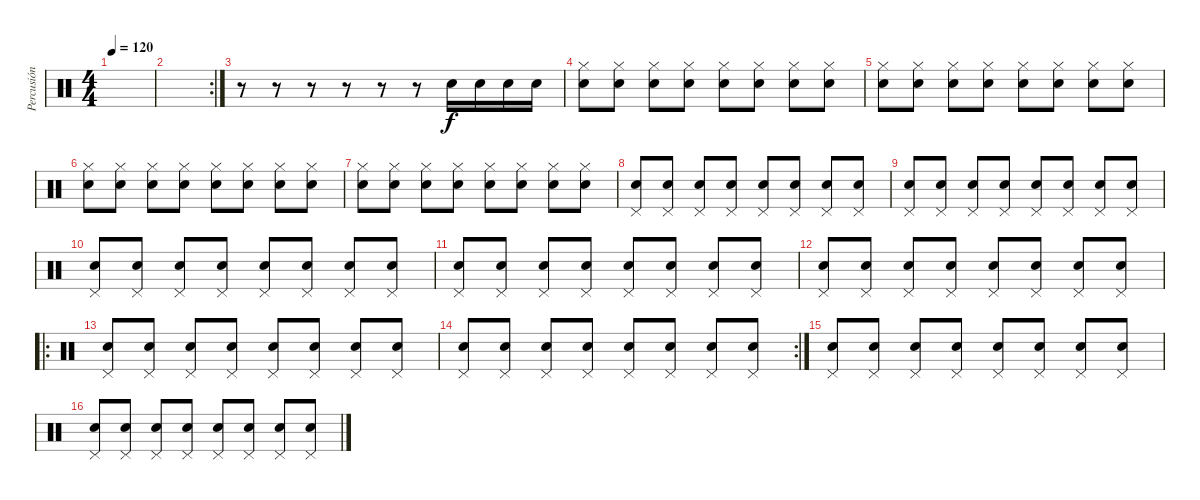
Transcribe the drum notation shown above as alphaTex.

\track ("Percusión" "Percusión") {instrument percussion}
\staff {score}
\articulation defaults
\ts (4 4)
\tempo 120
\clef neutral
\ks c
|
\rc 2
|
r.8 r.8 r.8 r.8 r.8 r.8 "Snare (hit) 2".16 "Snare (hit) 2".16 "Snare (hit) 2".16 "Snare (hit) 2".16 |
("Snare (hit) 2" "Hi-Hat (closed)").8 ("Electric Snare (hit)" "Hi-Hat (closed)").8 ("Snare (hit) 2" "Hi-Hat (closed)").8 ("Electric Snare (hit)" "Hi-Hat (closed)").8 ("Snare (hit) 2" "Hi-Hat (closed)").8 ("Electric Snare (hit)" "Hi-Hat (closed)").8 ("Snare (hit) 2" "Hi-Hat (closed)").8 ("Electric Snare (hit)" "Hi-Hat (closed)").8 |
("Snare (hit) 2" "Hi-Hat (closed)").8 ("Electric Snare (hit)" "Hi-Hat (closed)").8 ("Snare (hit) 2" "Hi-Hat (closed)").8 ("Electric Snare (hit)" "Hi-Hat (closed)").8 ("Snare (hit) 2" "Hi-Hat (closed)").8 ("Electric Snare (hit)" "Hi-Hat (closed)").8 ("Snare (hit) 2" "Hi-Hat (closed)").8 ("Electric Snare (hit)" "Hi-Hat (closed)").8 |
("Snare (hit) 2" "Hi-Hat (closed)").8 ("Electric Snare (hit)" "Hi-Hat (closed)").8 ("Snare (hit) 2" "Hi-Hat (closed)").8 ("Electric Snare (hit)" "Hi-Hat (closed)").8 ("Snare (hit) 2" "Hi-Hat (closed)").8 ("Electric Snare (hit)" "Hi-Hat (closed)").8 ("Snare (hit) 2" "Hi-Hat (closed)").8 ("Electric Snare (hit)" "Hi-Hat (closed)").8 |
("Snare (hit) 2" "Hi-Hat (closed)").8 ("Electric Snare (hit)" "Hi-Hat (closed)").8 ("Snare (hit) 2" "Hi-Hat (closed)").8 ("Electric Snare (hit)" "Hi-Hat (closed)").8 ("Snare (hit) 2" "Hi-Hat (closed)").8 ("Electric Snare (hit)" "Hi-Hat (closed)").8 ("Snare (hit) 2" "Hi-Hat (closed)").8 ("Electric Snare (hit)" "Hi-Hat (closed)").8 |
("Snare (hit) 2" "Pedal Hi-Hat (hit)").8 ("Electric Snare (hit)" "Pedal Hi-Hat (hit)").8 ("Snare (hit) 2" "Pedal Hi-Hat (hit)").8 ("Electric Snare (hit)" "Pedal Hi-Hat (hit)").8 ("Snare (hit) 2" "Pedal Hi-Hat (hit)").8 ("Electric Snare (hit)" "Pedal Hi-Hat (hit)").8 ("Snare (hit) 2" "Pedal Hi-Hat (hit)").8 ("Electric Snare (hit)" "Pedal Hi-Hat (hit)").8 |
("Snare (hit) 2" "Pedal Hi-Hat (hit)").8 ("Electric Snare (hit)" "Pedal Hi-Hat (hit)").8 ("Snare (hit) 2" "Pedal Hi-Hat (hit)").8 ("Electric Snare (hit)" "Pedal Hi-Hat (hit)").8 ("Snare (hit) 2" "Pedal Hi-Hat (hit)").8 ("Electric Snare (hit)" "Pedal Hi-Hat (hit)").8 ("Snare (hit) 2" "Pedal Hi-Hat (hit)").8 ("Electric Snare (hit)" "Pedal Hi-Hat (hit)").8 |
("Snare (hit) 2" "Pedal Hi-Hat (hit)").8 ("Electric Snare (hit)" "Pedal Hi-Hat (hit)").8 ("Snare (hit) 2" "Pedal Hi-Hat (hit)").8 ("Electric Snare (hit)" "Pedal Hi-Hat (hit)").8 ("Snare (hit) 2" "Pedal Hi-Hat (hit)").8 ("Electric Snare (hit)" "Pedal Hi-Hat (hit)").8 ("Snare (hit) 2" "Pedal Hi-Hat (hit)").8 ("Electric Snare (hit)" "Pedal Hi-Hat (hit)").8 |
("Snare (hit) 2" "Pedal Hi-Hat (hit)").8 ("Electric Snare (hit)" "Pedal Hi-Hat (hit)").8 ("Snare (hit) 2" "Pedal Hi-Hat (hit)").8 ("Electric Snare (hit)" "Pedal Hi-Hat (hit)").8 ("Snare (hit) 2" "Pedal Hi-Hat (hit)").8 ("Electric Snare (hit)" "Pedal Hi-Hat (hit)").8 ("Snare (hit) 2" "Pedal Hi-Hat (hit)").8 ("Electric Snare (hit)" "Pedal Hi-Hat (hit)").8 |
("Snare (hit) 2" "Pedal Hi-Hat (hit)").8 ("Electric Snare (hit)" "Pedal Hi-Hat (hit)").8 ("Snare (hit) 2" "Pedal Hi-Hat (hit)").8 ("Electric Snare (hit)" "Pedal Hi-Hat (hit)").8 ("Snare (hit) 2" "Pedal Hi-Hat (hit)").8 ("Electric Snare (hit)" "Pedal Hi-Hat (hit)").8 ("Snare (hit) 2" "Pedal Hi-Hat (hit)").8 ("Electric Snare (hit)" "Pedal Hi-Hat (hit)").8 |
\ro
("Snare (hit) 2" "Pedal Hi-Hat (hit)").8 ("Electric Snare (hit)" "Pedal Hi-Hat (hit)").8 ("Snare (hit) 2" "Pedal Hi-Hat (hit)").8 ("Electric Snare (hit)" "Pedal Hi-Hat (hit)").8 ("Snare (hit) 2" "Pedal Hi-Hat (hit)").8 ("Electric Snare (hit)" "Pedal Hi-Hat (hit)").8 ("Snare (hit) 2" "Pedal Hi-Hat (hit)").8 ("Electric Snare (hit)" "Pedal Hi-Hat (hit)").8 |
\rc 2
("Snare (hit) 2" "Pedal Hi-Hat (hit)").8 ("Electric Snare (hit)" "Pedal Hi-Hat (hit)").8 ("Snare (hit) 2" "Pedal Hi-Hat (hit)").8 ("Electric Snare (hit)" "Pedal Hi-Hat (hit)").8 ("Snare (hit) 2" "Pedal Hi-Hat (hit)").8 ("Electric Snare (hit)" "Pedal Hi-Hat (hit)").8 ("Snare (hit) 2" "Pedal Hi-Hat (hit)").8 ("Electric Snare (hit)" "Pedal Hi-Hat (hit)").8 |
("Snare (hit) 2" "Pedal Hi-Hat (hit)").8 ("Electric Snare (hit)" "Pedal Hi-Hat (hit)").8 ("Snare (hit) 2" "Pedal Hi-Hat (hit)").8 ("Electric Snare (hit)" "Pedal Hi-Hat (hit)").8 ("Snare (hit) 2" "Pedal Hi-Hat (hit)").8 ("Electric Snare (hit)" "Pedal Hi-Hat (hit)").8 ("Snare (hit) 2" "Pedal Hi-Hat (hit)").8 ("Electric Snare (hit)" "Pedal Hi-Hat (hit)").8 |
("Snare (hit) 2" "Pedal Hi-Hat (hit)").8 ("Electric Snare (hit)" "Pedal Hi-Hat (hit)").8 ("Snare (hit) 2" "Pedal Hi-Hat (hit)").8 ("Electric Snare (hit)" "Pedal Hi-Hat (hit)").8 ("Snare (hit) 2" "Pedal Hi-Hat (hit)").8 ("Electric Snare (hit)" "Pedal Hi-Hat (hit)").8 ("Snare (hit) 2" "Pedal Hi-Hat (hit)").8 ("Electric Snare (hit)" "Pedal Hi-Hat (hit)").8
